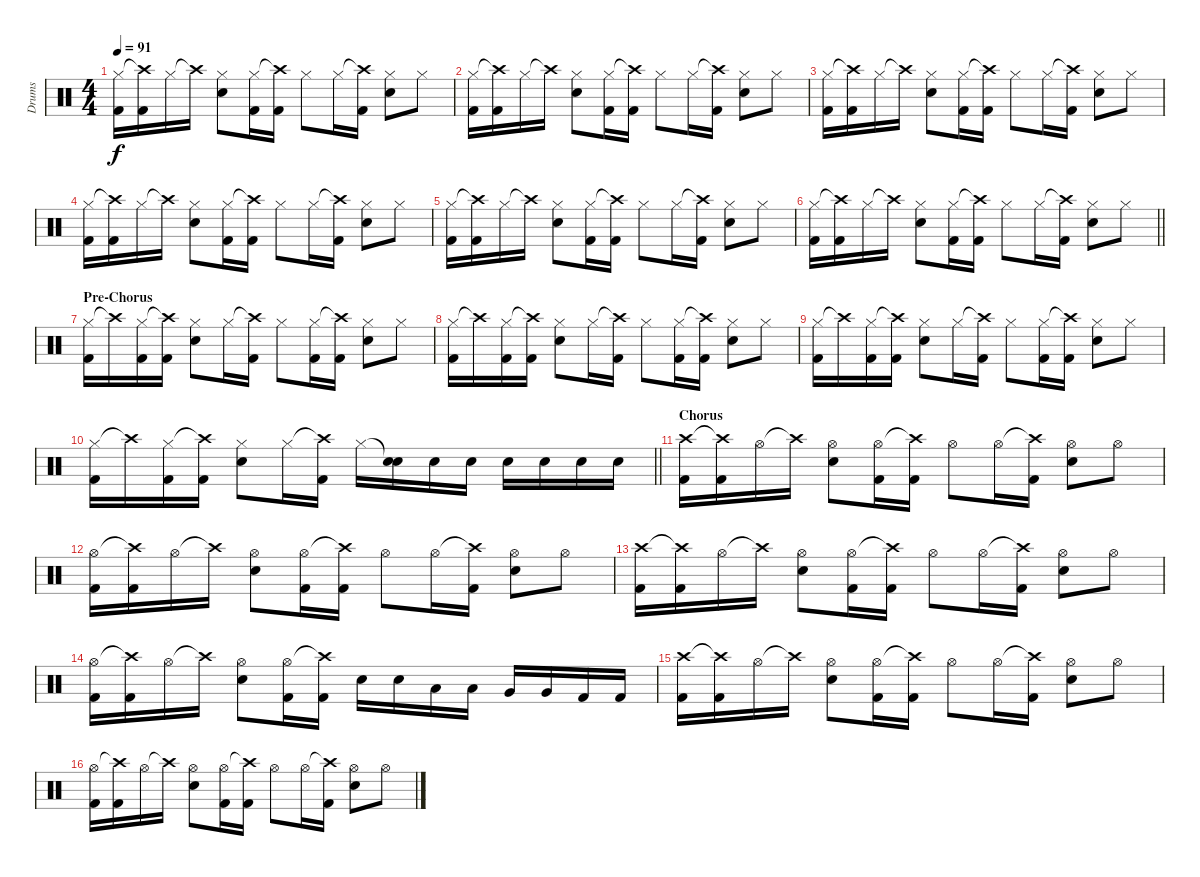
\track ("Drums" "Drums") {instrument percussion}
\staff {score}
\articulation defaults
\ts (4 4)
\tempo 91
\clef neutral
\ks c
("Hi-Hat (closed)" "Kick (hit) 2").16{dy f} ("Crash high (hit)"{t} "Kick (hit) 2").16 "Hi-Hat (closed)".16 "Crash high (hit)"{t}.16 ("Hi-Hat (closed)" "Electric Snare (hit)").8 ("Hi-Hat (closed)" "Kick (hit) 2").16 ("Crash high (hit)"{t} "Kick (hit) 2").16 "Hi-Hat (closed)".8 "Hi-Hat (closed)".16 ("Crash high (hit)"{t} "Kick (hit) 2").16 ("Hi-Hat (closed)" "Electric Snare (hit)").8 "Hi-Hat (closed)".8 |
("Hi-Hat (closed)" "Kick (hit) 2").16 ("Crash high (hit)"{t} "Kick (hit) 2").16 "Hi-Hat (closed)".16 "Crash high (hit)"{t}.16 ("Hi-Hat (closed)" "Electric Snare (hit)").8 ("Hi-Hat (closed)" "Kick (hit) 2").16 ("Crash high (hit)"{t} "Kick (hit) 2").16 "Hi-Hat (closed)".8 "Hi-Hat (closed)".16 ("Crash high (hit)"{t} "Kick (hit) 2").16 ("Hi-Hat (closed)" "Electric Snare (hit)").8 "Hi-Hat (closed)".8 |
("Hi-Hat (closed)" "Kick (hit) 2").16 ("Crash high (hit)"{t} "Kick (hit) 2").16 "Hi-Hat (closed)".16 "Crash high (hit)"{t}.16 ("Hi-Hat (closed)" "Electric Snare (hit)").8 ("Hi-Hat (closed)" "Kick (hit) 2").16 ("Crash high (hit)"{t} "Kick (hit) 2").16 "Hi-Hat (closed)".8 "Hi-Hat (closed)".16 ("Crash high (hit)"{t} "Kick (hit) 2").16 ("Hi-Hat (closed)" "Electric Snare (hit)").8 "Hi-Hat (closed)".8 |
("Hi-Hat (closed)" "Kick (hit) 2").16 ("Crash high (hit)"{t} "Kick (hit) 2").16 "Hi-Hat (closed)".16 "Crash high (hit)"{t}.16 ("Hi-Hat (closed)" "Electric Snare (hit)").8 ("Hi-Hat (closed)" "Kick (hit) 2").16 ("Crash high (hit)"{t} "Kick (hit) 2").16 "Hi-Hat (closed)".8 "Hi-Hat (closed)".16 ("Crash high (hit)"{t} "Kick (hit) 2").16 ("Hi-Hat (closed)" "Electric Snare (hit)").8 "Hi-Hat (closed)".8 |
("Hi-Hat (closed)" "Kick (hit) 2").16 ("Crash high (hit)"{t} "Kick (hit) 2").16 "Hi-Hat (closed)".16 "Crash high (hit)"{t}.16 ("Hi-Hat (closed)" "Electric Snare (hit)").8 ("Hi-Hat (closed)" "Kick (hit) 2").16 ("Crash high (hit)"{t} "Kick (hit) 2").16 "Hi-Hat (closed)".8 "Hi-Hat (closed)".16 ("Crash high (hit)"{t} "Kick (hit) 2").16 ("Hi-Hat (closed)" "Electric Snare (hit)").8 "Hi-Hat (closed)".8 |
\barLineRight lightlight
("Hi-Hat (closed)" "Kick (hit) 2").16 ("Crash high (hit)"{t} "Kick (hit) 2").16 "Hi-Hat (closed)".16 "Crash high (hit)"{t}.16 ("Hi-Hat (closed)" "Electric Snare (hit)").8 ("Hi-Hat (closed)" "Kick (hit) 2").16 ("Crash high (hit)"{t} "Kick (hit) 2").16 "Hi-Hat (closed)".8 "Hi-Hat (closed)".16 ("Crash high (hit)"{t} "Kick (hit) 2").16 ("Hi-Hat (closed)" "Electric Snare (hit)").8 "Hi-Hat (closed)".8 |
\section ("" "Pre-Chorus")
("Hi-Hat (closed)" "Kick (hit) 2").16 "Crash high (hit)"{t}.16 ("Hi-Hat (closed)" "Kick (hit) 2").16 ("Crash high (hit)"{t} "Kick (hit) 2").16 ("Hi-Hat (closed)" "Electric Snare (hit)").8 "Hi-Hat (closed)".16 ("Crash high (hit)"{t} "Kick (hit) 2").16 "Hi-Hat (closed)".8 ("Hi-Hat (closed)" "Kick (hit) 2").16 ("Crash high (hit)"{t} "Kick (hit) 2").16 ("Hi-Hat (closed)" "Electric Snare (hit)").8 "Hi-Hat (closed)".8 |
("Hi-Hat (closed)" "Kick (hit) 2").16 "Crash high (hit)"{t}.16 ("Hi-Hat (closed)" "Kick (hit) 2").16 ("Crash high (hit)"{t} "Kick (hit) 2").16 ("Hi-Hat (closed)" "Electric Snare (hit)").8 "Hi-Hat (closed)".16 ("Crash high (hit)"{t} "Kick (hit) 2").16 "Hi-Hat (closed)".8 ("Hi-Hat (closed)" "Kick (hit) 2").16 ("Crash high (hit)"{t} "Kick (hit) 2").16 ("Hi-Hat (closed)" "Electric Snare (hit)").8 "Hi-Hat (closed)".8 |
("Hi-Hat (closed)" "Kick (hit) 2").16 "Crash high (hit)"{t}.16 ("Hi-Hat (closed)" "Kick (hit) 2").16 ("Crash high (hit)"{t} "Kick (hit) 2").16 ("Hi-Hat (closed)" "Electric Snare (hit)").8 "Hi-Hat (closed)".16 ("Crash high (hit)"{t} "Kick (hit) 2").16 "Hi-Hat (closed)".8 ("Hi-Hat (closed)" "Kick (hit) 2").16 ("Crash high (hit)"{t} "Kick (hit) 2").16 ("Hi-Hat (closed)" "Electric Snare (hit)").8 "Hi-Hat (closed)".8 |
\barLineRight lightlight
("Hi-Hat (closed)" "Kick (hit) 2").16 "Crash high (hit)"{t}.16 ("Hi-Hat (closed)" "Kick (hit) 2").16 ("Crash high (hit)"{t} "Kick (hit) 2").16 ("Hi-Hat (closed)" "Electric Snare (hit)").8 "Hi-Hat (closed)".16 ("Crash high (hit)"{t} "Kick (hit) 2").16 "Hi-Hat (closed)".16 ("Snare (hit)"{t} "Electric Snare (hit)").16 "Electric Snare (hit)".16 "Electric Snare (hit)".16 "Electric Snare (hit)".16 "Electric Snare (hit)".16 "Electric Snare (hit)".16 "Electric Snare (hit)".16 |
\section ("" "Chorus")
("Crash high (hit)" "Kick (hit) 2").16 ("Crash high (hit)"{t} "Kick (hit) 2").16 "Hi-Hat (open)".16 "Crash high (hit)"{t}.16 ("Hi-Hat (open)" "Electric Snare (hit)").8 ("Hi-Hat (open)" "Kick (hit) 2").16 ("Crash high (hit)"{t} "Kick (hit) 2").16 "Hi-Hat (open)".8 "Hi-Hat (open)".16 ("Crash high (hit)"{t} "Kick (hit) 2").16 ("Hi-Hat (open)" "Electric Snare (hit)").8 "Hi-Hat (open)".8 |
("Hi-Hat (open)" "Kick (hit) 2").16 ("Crash high (hit)"{t} "Kick (hit) 2").16 "Hi-Hat (open)".16 "Crash high (hit)"{t}.16 ("Hi-Hat (open)" "Electric Snare (hit)").8 ("Hi-Hat (open)" "Kick (hit) 2").16 ("Crash high (hit)"{t} "Kick (hit) 2").16 "Hi-Hat (open)".8 "Hi-Hat (open)".16 ("Crash high (hit)"{t} "Kick (hit) 2").16 ("Hi-Hat (open)" "Electric Snare (hit)").8 "Hi-Hat (open)".8 |
("Crash high (hit)" "Kick (hit) 2").16 ("Crash high (hit)"{t} "Kick (hit) 2").16 "Hi-Hat (open)".16 "Crash high (hit)"{t}.16 ("Hi-Hat (open)" "Electric Snare (hit)").8 ("Hi-Hat (open)" "Kick (hit) 2").16 ("Crash high (hit)"{t} "Kick (hit) 2").16 "Hi-Hat (open)".8 "Hi-Hat (open)".16 ("Crash high (hit)"{t} "Kick (hit) 2").16 ("Hi-Hat (open)" "Electric Snare (hit)").8 "Hi-Hat (open)".8 |
("Hi-Hat (open)" "Kick (hit) 2").16 ("Crash high (hit)"{t} "Kick (hit) 2").16 "Hi-Hat (open)".16 "Crash high (hit)"{t}.16 ("Hi-Hat (open)" "Electric Snare (hit)").8 ("Hi-Hat (open)" "Kick (hit) 2").16 ("Crash high (hit)"{t} "Kick (hit) 2").16 "Electric Snare (hit)".16 "Electric Snare (hit)".16 "Low Tom (hit)".16 "Low Tom (hit)".16 "Very Low Tom (hit)".16 "Very Low Tom (hit)".16 "Kick (hit) 2".16 "Kick (hit) 2".16 |
("Crash high (hit)" "Kick (hit) 2").16 ("Crash high (hit)"{t} "Kick (hit) 2").16 "Hi-Hat (open)".16 "Crash high (hit)"{t}.16 ("Hi-Hat (open)" "Electric Snare (hit)").8 ("Hi-Hat (open)" "Kick (hit) 2").16 ("Crash high (hit)"{t} "Kick (hit) 2").16 "Hi-Hat (open)".8 "Hi-Hat (open)".16 ("Crash high (hit)"{t} "Kick (hit) 2").16 ("Hi-Hat (open)" "Electric Snare (hit)").8 "Hi-Hat (open)".8 |
("Hi-Hat (open)" "Kick (hit) 2").16 ("Crash high (hit)"{t} "Kick (hit) 2").16 "Hi-Hat (open)".16 "Crash high (hit)"{t}.16 ("Hi-Hat (open)" "Electric Snare (hit)").8 ("Hi-Hat (open)" "Kick (hit) 2").16 ("Crash high (hit)"{t} "Kick (hit) 2").16 "Hi-Hat (open)".8 "Hi-Hat (open)".16 ("Crash high (hit)"{t} "Kick (hit) 2").16 ("Hi-Hat (open)" "Electric Snare (hit)").8 "Hi-Hat (open)".8
